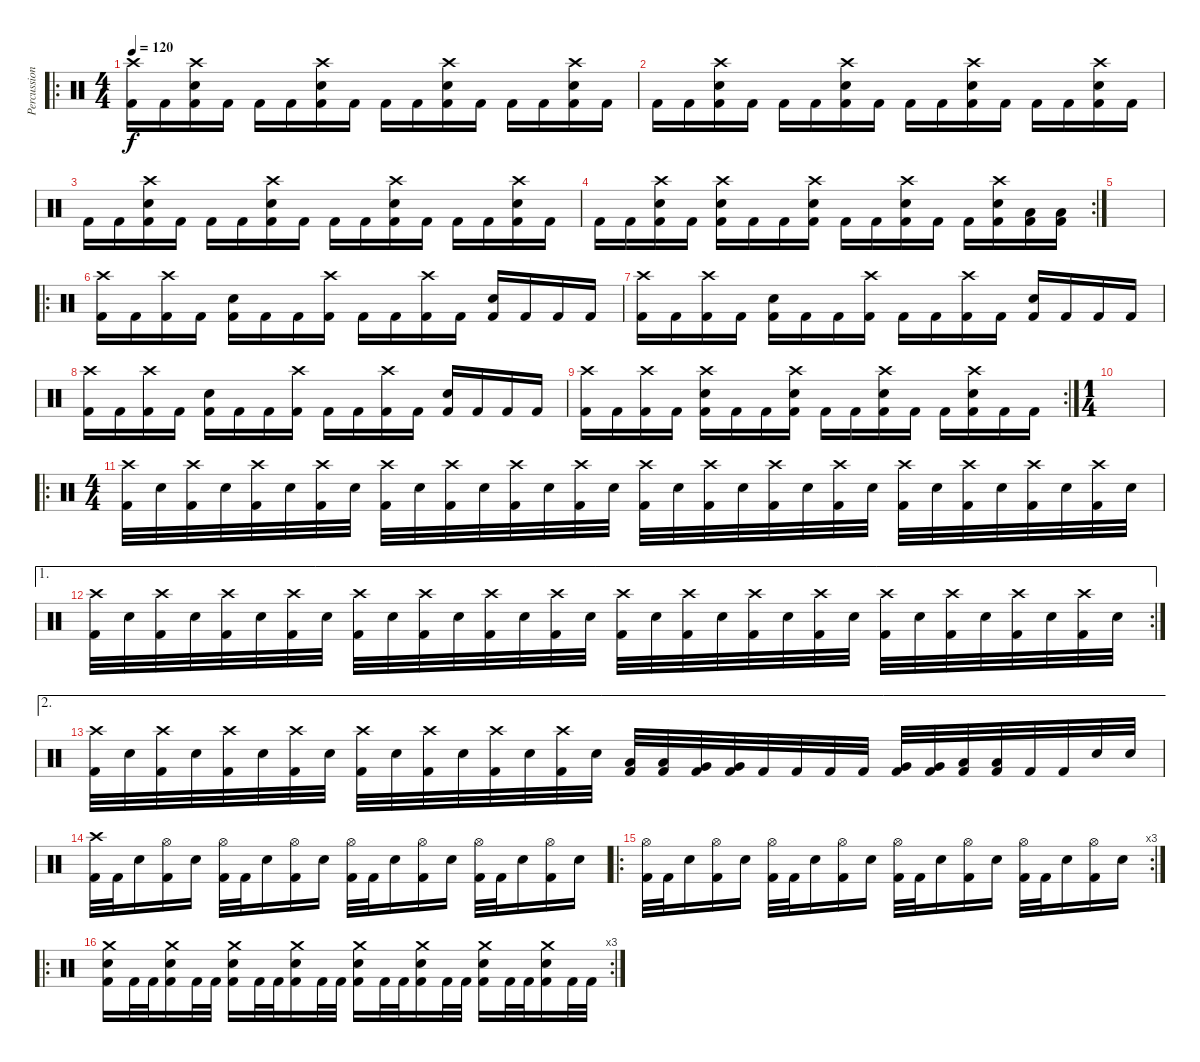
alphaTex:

\track ("Percussion" "Percussion") {instrument percussion}
\staff {score}
\articulation defaults
\ro
\ts (4 4)
\tempo 120
\clef neutral
\ks c
("Crash high (hit)" "Kick (hit) 2").16{dy f} "Kick (hit) 2".16 ("Crash high (hit)" "Electric Snare (hit)" "Kick (hit) 2").16 "Kick (hit) 2".16 "Kick (hit) 2".16 "Kick (hit) 2".16 ("Crash high (hit)" "Electric Snare (hit)" "Kick (hit) 2").16 "Kick (hit) 2".16 "Kick (hit) 2".16 "Kick (hit) 2".16 ("Crash high (hit)" "Electric Snare (hit)" "Kick (hit) 2").16 "Kick (hit) 2".16 "Kick (hit) 2".16 "Kick (hit) 2".16 ("Crash high (hit)" "Electric Snare (hit)" "Kick (hit) 2").16 "Kick (hit) 2".16 |
"Kick (hit) 2".16 "Kick (hit) 2".16 ("Crash high (hit)" "Electric Snare (hit)" "Kick (hit) 2").16 "Kick (hit) 2".16 "Kick (hit) 2".16 "Kick (hit) 2".16 ("Crash high (hit)" "Electric Snare (hit)" "Kick (hit) 2").16 "Kick (hit) 2".16 "Kick (hit) 2".16 "Kick (hit) 2".16 ("Crash high (hit)" "Electric Snare (hit)" "Kick (hit) 2").16 "Kick (hit) 2".16 "Kick (hit) 2".16 "Kick (hit) 2".16 ("Crash high (hit)" "Electric Snare (hit)" "Kick (hit) 2").16 "Kick (hit) 2".16 |
"Kick (hit) 2".16 "Kick (hit) 2".16 ("Crash high (hit)" "Electric Snare (hit)" "Kick (hit) 2").16 "Kick (hit) 2".16 "Kick (hit) 2".16 "Kick (hit) 2".16 ("Crash high (hit)" "Electric Snare (hit)" "Kick (hit) 2").16 "Kick (hit) 2".16 "Kick (hit) 2".16 "Kick (hit) 2".16 ("Crash high (hit)" "Electric Snare (hit)" "Kick (hit) 2").16 "Kick (hit) 2".16 "Kick (hit) 2".16 "Kick (hit) 2".16 ("Crash high (hit)" "Electric Snare (hit)" "Kick (hit) 2").16 "Kick (hit) 2".16 |
\rc 2 "Kick (hit) 2".16 "Kick (hit) 2".16
("Crash high (hit)" "Electric Snare (hit)" "Kick (hit) 2").16 "Kick (hit) 2".16 ("Crash high (hit)" "Electric Snare (hit)" "Kick (hit) 2").16 "Kick (hit) 2".16 "Kick (hit) 2".16 ("Crash high (hit)" "Electric Snare (hit)" "Kick (hit) 2").16 "Kick (hit) 2".16 "Kick (hit) 2".16 ("Crash high (hit)" "Electric Snare (hit)" "Kick (hit) 2").16 "Kick (hit) 2".16 "Kick (hit) 2".16 ("Crash high (hit)" "Electric Snare (hit)" "Kick (hit) 2").16 ("Low Floor Tom (hit)" "Kick (hit) 2").16 ("Low Floor Tom (hit)" "Kick (hit) 2").16 |
|
\ro
("Crash high (hit)" "Kick (hit) 2").16 "Kick (hit) 2".16 ("Crash high (hit)" "Kick (hit) 2").16 "Kick (hit) 2".16 ("Electric Snare (hit)" "Kick (hit) 2").16 "Kick (hit) 2".16 "Kick (hit) 2".16 ("Crash high (hit)" "Kick (hit) 2").16 "Kick (hit) 2".16 "Kick (hit) 2".16 ("Crash high (hit)" "Kick (hit) 2").16 "Kick (hit) 2".16 ("Electric Snare (hit)" "Kick (hit) 2").16 "Kick (hit) 2".16 "Kick (hit) 2".16 "Kick (hit) 2".16 |
("Crash high (hit)" "Kick (hit) 2").16 "Kick (hit) 2".16 ("Crash high (hit)" "Kick (hit) 2").16 "Kick (hit) 2".16 ("Electric Snare (hit)" "Kick (hit) 2").16 "Kick (hit) 2".16 "Kick (hit) 2".16 ("Crash high (hit)" "Kick (hit) 2").16 "Kick (hit) 2".16 "Kick (hit) 2".16 ("Crash high (hit)" "Kick (hit) 2").16 "Kick (hit) 2".16 ("Electric Snare (hit)" "Kick (hit) 2").16 "Kick (hit) 2".16 "Kick (hit) 2".16 "Kick (hit) 2".16 |
("Crash high (hit)" "Kick (hit) 2").16 "Kick (hit) 2".16 ("Crash high (hit)" "Kick (hit) 2").16 "Kick (hit) 2".16 ("Electric Snare (hit)" "Kick (hit) 2").16 "Kick (hit) 2".16 "Kick (hit) 2".16 ("Crash high (hit)" "Kick (hit) 2").16 "Kick (hit) 2".16 "Kick (hit) 2".16 ("Crash high (hit)" "Kick (hit) 2").16 "Kick (hit) 2".16 ("Electric Snare (hit)" "Kick (hit) 2").16 "Kick (hit) 2".16 "Kick (hit) 2".16 "Kick (hit) 2".16 |
\rc 2
("Crash high (hit)" "Kick (hit) 2").16 "Kick (hit) 2".16 ("Crash high (hit)" "Kick (hit) 2").16 "Kick (hit) 2".16 ("Crash high (hit)" "Electric Snare (hit)" "Kick (hit) 2").16 "Kick (hit) 2".16 "Kick (hit) 2".16 ("Crash high (hit)" "Electric Snare (hit)" "Kick (hit) 2").16 "Kick (hit) 2".16 "Kick (hit) 2".16 ("Crash high (hit)" "Electric Snare (hit)" "Kick (hit) 2").16 "Kick (hit) 2".16 "Kick (hit) 2".16 ("Crash high (hit)" "Electric Snare (hit)" "Kick (hit) 2").16 "Kick (hit) 2".16 "Kick (hit) 2".16 |
\ts (1 4)
|
\ro
\ts (4 4)
("Crash high (hit)" "Kick (hit) 2").32 "Electric Snare (hit)".32 ("Crash high (hit)" "Kick (hit) 2").32 "Electric Snare (hit)".32 ("Crash high (hit)" "Kick (hit) 2").32 "Electric Snare (hit)".32 ("Crash high (hit)" "Kick (hit) 2").32 "Electric Snare (hit)".32 ("Crash high (hit)" "Kick (hit) 2").32 "Electric Snare (hit)".32 ("Crash high (hit)" "Kick (hit) 2").32 "Electric Snare (hit)".32 ("Crash high (hit)" "Kick (hit) 2").32 "Electric Snare (hit)".32 ("Crash high (hit)" "Kick (hit) 2").32 "Electric Snare (hit)".32 ("Crash high (hit)" "Kick (hit) 2").32 "Electric Snare (hit)".32 ("Crash high (hit)" "Kick (hit) 2").32 "Electric Snare (hit)".32 ("Crash high (hit)" "Kick (hit) 2").32 "Electric Snare (hit)".32 ("Crash high (hit)" "Kick (hit) 2").32 "Electric Snare (hit)".32 ("Crash high (hit)" "Kick (hit) 2").32 "Electric Snare (hit)".32 ("Crash high (hit)" "Kick (hit) 2").32 "Electric Snare (hit)".32 ("Crash high (hit)" "Kick (hit) 2").32 "Electric Snare (hit)".32 ("Crash high (hit)" "Kick (hit) 2").32 "Electric Snare (hit)".32 |
\ae 1
\rc 2
("Crash high (hit)" "Kick (hit) 2").32 "Electric Snare (hit)".32 ("Crash high (hit)" "Kick (hit) 2").32 "Electric Snare (hit)".32 ("Crash high (hit)" "Kick (hit) 2").32 "Electric Snare (hit)".32 ("Crash high (hit)" "Kick (hit) 2").32 "Electric Snare (hit)".32 ("Crash high (hit)" "Kick (hit) 2").32 "Electric Snare (hit)".32 ("Crash high (hit)" "Kick (hit) 2").32 "Electric Snare (hit)".32 ("Crash high (hit)" "Kick (hit) 2").32 "Electric Snare (hit)".32 ("Crash high (hit)" "Kick (hit) 2").32 "Electric Snare (hit)".32 ("Crash high (hit)" "Kick (hit) 2").32 "Electric Snare (hit)".32 ("Crash high (hit)" "Kick (hit) 2").32 "Electric Snare (hit)".32 ("Crash high (hit)" "Kick (hit) 2").32 "Electric Snare (hit)".32 ("Crash high (hit)" "Kick (hit) 2").32 "Electric Snare (hit)".32 ("Crash high (hit)" "Kick (hit) 2").32 "Electric Snare (hit)".32 ("Crash high (hit)" "Kick (hit) 2").32 "Electric Snare (hit)".32 ("Crash high (hit)" "Kick (hit) 2").32 "Electric Snare (hit)".32 ("Crash high (hit)" "Kick (hit) 2").32 "Electric Snare (hit)".32 |
\ae 2
("Crash high (hit)" "Kick (hit) 2").32 "Electric Snare (hit)".32 ("Crash high (hit)" "Kick (hit) 2").32 "Electric Snare (hit)".32 ("Crash high (hit)" "Kick (hit) 2").32 "Electric Snare (hit)".32 ("Crash high (hit)" "Kick (hit) 2").32 "Electric Snare (hit)".32 ("Crash high (hit)" "Kick (hit) 2").32 "Electric Snare (hit)".32 ("Crash high (hit)" "Kick (hit) 2").32 "Electric Snare (hit)".32 ("Crash high (hit)" "Kick (hit) 2").32 "Electric Snare (hit)".32 ("Crash high (hit)" "Kick (hit) 2").32 "Electric Snare (hit)".32 ("Low Tom (hit)" "Kick (hit) 2").32 ("Low Tom (hit)" "Kick (hit) 2").32 ("Very Low Tom (hit)" "Kick (hit) 2").32 ("Very Low Tom (hit)" "Kick (hit) 2").32 "Kick (hit) 2".32 "Kick (hit) 2".32 "Kick (hit) 2".32 "Kick (hit) 2".32 ("Very Low Tom (hit)" "Kick (hit) 2").32 ("Very Low Tom (hit)" "Kick (hit) 2").32 ("Low Floor Tom (hit)" "Kick (hit) 2").32 ("Low Floor Tom (hit)" "Kick (hit) 2").32 "Kick (hit) 2".32 "Kick (hit) 2".32 "Electric Snare (hit)".32 "Electric Snare (hit)".32 |
("Crash high (hit)" "Kick (hit) 2").32 "Kick (hit) 2".32 "Electric Snare (hit)".16 ("Hi-Hat (open)" "Kick (hit) 2").16 "Electric Snare (hit)".16 ("Hi-Hat (open)" "Kick (hit) 2").32 "Kick (hit) 2".32 "Electric Snare (hit)".16 ("Hi-Hat (open)" "Kick (hit) 2").16 "Electric Snare (hit)".16 ("Hi-Hat (open)" "Kick (hit) 2").32 "Kick (hit) 2".32 "Electric Snare (hit)".16 ("Hi-Hat (open)" "Kick (hit) 2").16 "Electric Snare (hit)".16 ("Hi-Hat (open)" "Kick (hit) 2").32 "Kick (hit) 2".32 "Electric Snare (hit)".16 ("Hi-Hat (open)" "Kick (hit) 2").16 "Electric Snare (hit)".16 |
\ro
\rc 3
("Hi-Hat (open)" "Kick (hit) 2").32 "Kick (hit) 2".32 "Electric Snare (hit)".16 ("Hi-Hat (open)" "Kick (hit) 2").16 "Electric Snare (hit)".16 ("Hi-Hat (open)" "Kick (hit) 2").32 "Kick (hit) 2".32 "Electric Snare (hit)".16 ("Hi-Hat (open)" "Kick (hit) 2").16 "Electric Snare (hit)".16 ("Hi-Hat (open)" "Kick (hit) 2").32 "Kick (hit) 2".32 "Electric Snare (hit)".16 ("Hi-Hat (open)" "Kick (hit) 2").16 "Electric Snare (hit)".16 ("Hi-Hat (open)" "Kick (hit) 2").32 "Kick (hit) 2".32 "Electric Snare (hit)".16 ("Hi-Hat (open)" "Kick (hit) 2").16 "Electric Snare (hit)".16 |
\ro
\rc 3
("Crash medium (hit)" "Electric Snare (hit)" "Kick (hit) 2").16 "Kick (hit) 2".32 "Kick (hit) 2".32 ("Crash medium (hit)" "Electric Snare (hit)" "Kick (hit) 2").16 "Kick (hit) 2".32 "Kick (hit) 2".32 ("Crash medium (hit)" "Electric Snare (hit)" "Kick (hit) 2").16 "Kick (hit) 2".32 "Kick (hit) 2".32 ("Crash medium (hit)" "Electric Snare (hit)" "Kick (hit) 2").16 "Kick (hit) 2".32 "Kick (hit) 2".32 ("Crash medium (hit)" "Electric Snare (hit)" "Kick (hit) 2").16 "Kick (hit) 2".32 "Kick (hit) 2".32 ("Crash medium (hit)" "Electric Snare (hit)" "Kick (hit) 2").16 "Kick (hit) 2".32 "Kick (hit) 2".32 ("Crash medium (hit)" "Electric Snare (hit)" "Kick (hit) 2").16 "Kick (hit) 2".32 "Kick (hit) 2".32 ("Crash medium (hit)" "Electric Snare (hit)" "Kick (hit) 2").16 "Kick (hit) 2".32 "Kick (hit) 2".32
